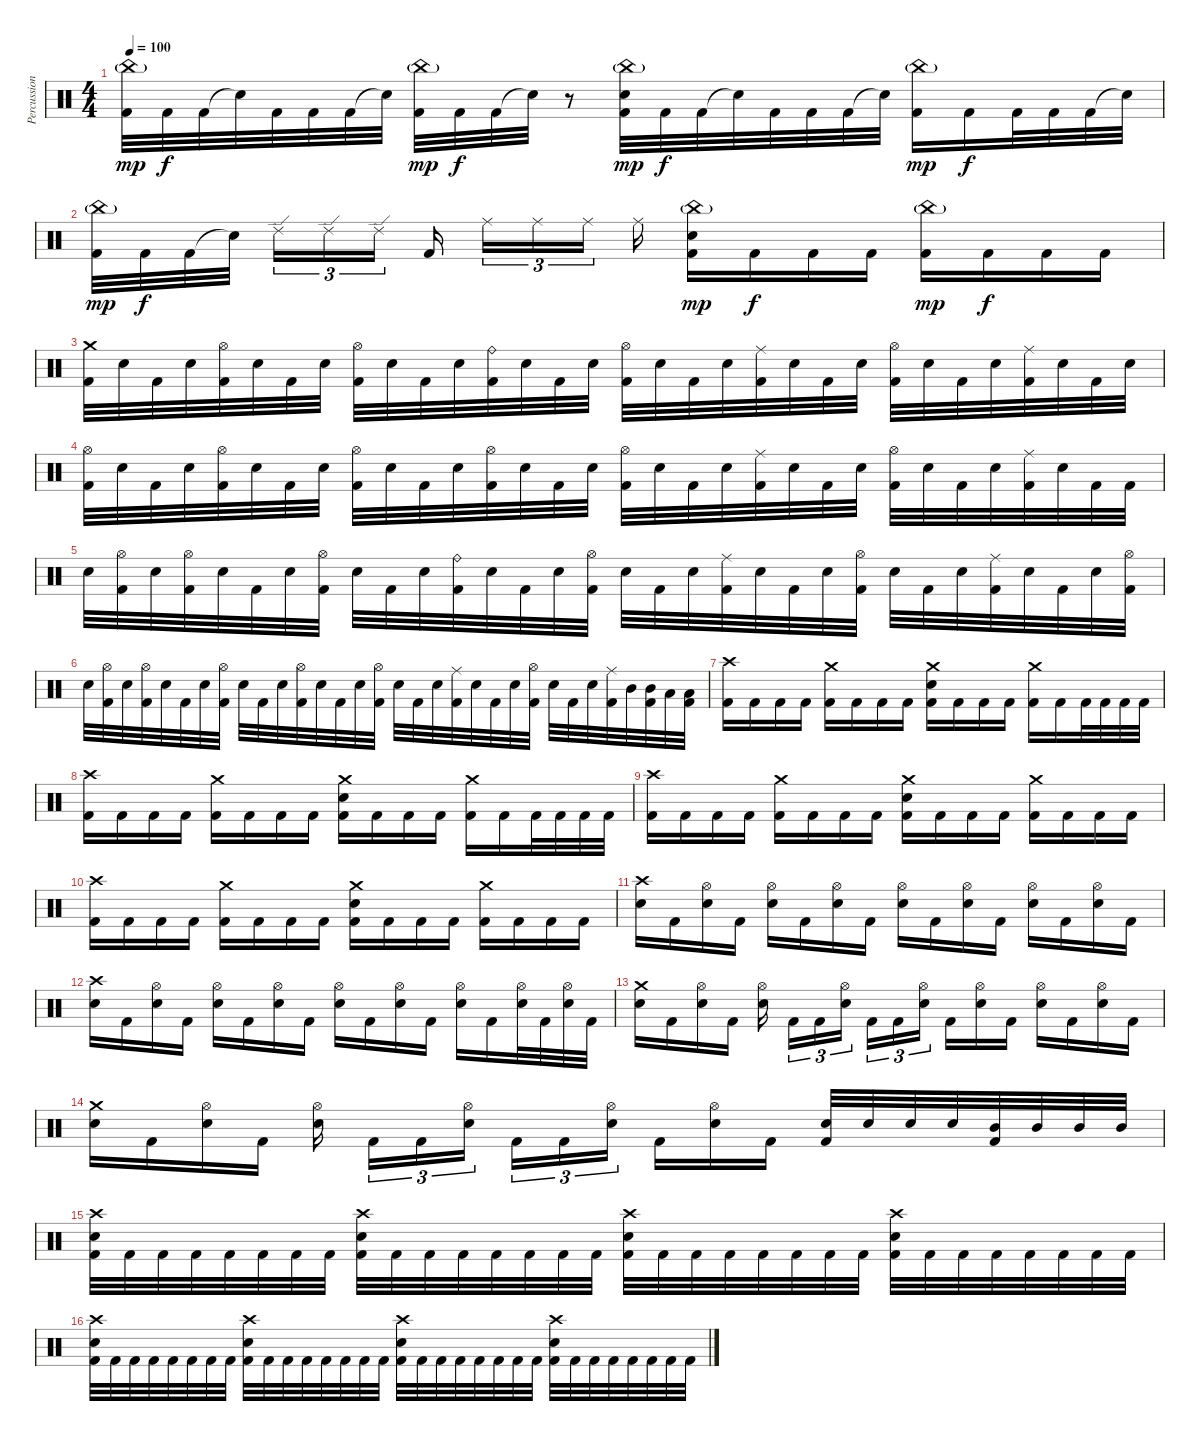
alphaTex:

\track ("Percussion" "Percussion") {instrument percussion}
\staff {score}
\articulation defaults
\ts (4 4)
\tempo 100
\clef neutral
\ks c
("China (hit)"{g} "Kick (hit) 2").32{dy mp} "Kick (hit) 2".32{dy f} "Kick (hit) 2".32 "Snare (hit)"{t}.32 "Kick (hit) 2".32 "Kick (hit) 2".32 "Kick (hit) 2".32 "Snare (hit)"{t}.32 ("China (hit)"{g} "Kick (hit) 2").32{dy mp} "Kick (hit) 2".32{dy f} "Kick (hit) 2".32 "Snare (hit)"{t}.32 r.8 ("China (hit)"{g} "Electric Snare (hit)" "Kick (hit) 2").32{dy mp} "Kick (hit) 2".32{dy f} "Kick (hit) 2".32 "Snare (hit)"{t}.32 "Kick (hit) 2".32 "Kick (hit) 2".32 "Kick (hit) 2".32 "Snare (hit)"{t}.32 ("China (hit)"{g} "Kick (hit) 2").16{dy mp} "Kick (hit) 2".16{dy f} "Kick (hit) 2".32 "Kick (hit) 2".32 "Kick (hit) 2".32 "Snare (hit)"{t}.32 |
("China (hit)"{g} "Kick (hit) 2").32{dy mp} "Kick (hit) 2".32{dy f} "Kick (hit) 2".32 "Snare (hit)"{t}.32{beam splitsecondary} "Ride (edge) 2".16{tu (3 2)} "Ride (edge) 2".16{tu (3 2)} "Ride (edge) 2".16{tu (3 2)} "Kick (hit) 2".16{beam splitsecondary} "Ride (middle)".16{tu (3 2)} "Ride (middle)".16{tu (3 2)} "Ride (middle)".16{tu (3 2) beam splitsecondary} "Ride (middle)".16 ("China (hit)"{g} "Electric Snare (hit)" "Kick (hit) 2").16{dy mp} "Kick (hit) 2".16{dy f} "Kick (hit) 2".16 "Kick (hit) 2".16 ("China (hit)"{g} "Kick (hit) 2").16{dy mp} "Kick (hit) 2".16{dy f} "Kick (hit) 2".16 "Kick (hit) 2".16 |
("Crash medium (hit)" "Kick (hit) 2").32 "Electric Snare (hit)".32 "Kick (hit) 2".32 "Electric Snare (hit)".32 ("Hi-Hat (open)" "Kick (hit) 2").32 "Electric Snare (hit)".32 "Kick (hit) 2".32 "Electric Snare (hit)".32 ("Hi-Hat (open)" "Kick (hit) 2").32 "Electric Snare (hit)".32 "Kick (hit) 2".32 "Electric Snare (hit)".32 ("Ride (bell)" "Kick (hit) 2").32 "Electric Snare (hit)".32 "Kick (hit) 2".32 "Electric Snare (hit)".32 ("Hi-Hat (open)" "Kick (hit) 2").32 "Electric Snare (hit)".32 "Kick (hit) 2".32 "Electric Snare (hit)".32 ("Ride (middle)" "Kick (hit) 2").32 "Electric Snare (hit)".32 "Kick (hit) 2".32 "Electric Snare (hit)".32 ("Hi-Hat (open)" "Kick (hit) 2").32 "Electric Snare (hit)".32 "Kick (hit) 2".32 "Electric Snare (hit)".32 ("Ride (middle)" "Kick (hit) 2").32 "Electric Snare (hit)".32 "Kick (hit) 2".32 "Electric Snare (hit)".32 |
("Hi-Hat (open)" "Kick (hit) 2").32 "Electric Snare (hit)".32 "Kick (hit) 2".32 "Electric Snare (hit)".32 ("Hi-Hat (open)" "Kick (hit) 2").32 "Electric Snare (hit)".32 "Kick (hit) 2".32 "Electric Snare (hit)".32 ("Hi-Hat (open)" "Kick (hit) 2").32 "Electric Snare (hit)".32 "Kick (hit) 2".32 "Electric Snare (hit)".32 ("Hi-Hat (open)" "Kick (hit) 2").32 "Electric Snare (hit)".32 "Kick (hit) 2".32 "Electric Snare (hit)".32 ("Hi-Hat (open)" "Kick (hit) 2").32 "Electric Snare (hit)".32 "Kick (hit) 2".32 "Electric Snare (hit)".32 ("Ride (middle)" "Kick (hit) 2").32 "Electric Snare (hit)".32 "Kick (hit) 2".32 "Electric Snare (hit)".32 ("Hi-Hat (open)" "Kick (hit) 2").32 "Electric Snare (hit)".32 "Kick (hit) 2".32 "Electric Snare (hit)".32 ("Ride (middle)" "Kick (hit) 2").32 "Electric Snare (hit)".32 "Kick (hit) 2".32 "Kick (hit) 2".32 |
"Electric Snare (hit)".32 ("Hi-Hat (open)" "Kick (hit) 2").32 "Electric Snare (hit)".32 ("Hi-Hat (open)" "Kick (hit) 2").32 "Electric Snare (hit)".32 "Kick (hit) 2".32 "Electric Snare (hit)".32 ("Hi-Hat (open)" "Kick (hit) 2").32 "Electric Snare (hit)".32 "Kick (hit) 2".32 "Electric Snare (hit)".32 ("Ride (bell)" "Kick (hit) 2").32 "Electric Snare (hit)".32 "Kick (hit) 2".32 "Electric Snare (hit)".32 ("Hi-Hat (open)" "Kick (hit) 2").32 "Electric Snare (hit)".32 "Kick (hit) 2".32 "Electric Snare (hit)".32 ("Ride (middle)" "Kick (hit) 2").32 "Electric Snare (hit)".32 "Kick (hit) 2".32 "Electric Snare (hit)".32 ("Hi-Hat (open)" "Kick (hit) 2").32 "Electric Snare (hit)".32 "Kick (hit) 2".32 "Electric Snare (hit)".32 ("Ride (middle)" "Kick (hit) 2").32 "Electric Snare (hit)".32 "Kick (hit) 2".32 "Electric Snare (hit)".32 ("Hi-Hat (open)" "Kick (hit) 2").32 |
"Electric Snare (hit)".32 ("Hi-Hat (open)" "Kick (hit) 2").32 "Electric Snare (hit)".32 ("Hi-Hat (open)" "Kick (hit) 2").32 "Electric Snare (hit)".32 "Kick (hit) 2".32 "Electric Snare (hit)".32 ("Hi-Hat (open)" "Kick (hit) 2").32 "Electric Snare (hit)".32 "Kick (hit) 2".32 "Electric Snare (hit)".32 ("Hi-Hat (open)" "Kick (hit) 2").32 "Electric Snare (hit)".32 "Kick (hit) 2".32 "Electric Snare (hit)".32 ("Hi-Hat (open)" "Kick (hit) 2").32 "Electric Snare (hit)".32 "Kick (hit) 2".32 "Electric Snare (hit)".32 ("Ride (middle)" "Kick (hit) 2").32 "Electric Snare (hit)".32 "Kick (hit) 2".32 "Electric Snare (hit)".32 ("Hi-Hat (open)" "Kick (hit) 2").32 "Electric Snare (hit)".32 "Kick (hit) 2".32 "Electric Snare (hit)".32 ("Ride (middle)" "Kick (hit) 2").32 "Mid Tom (hit)".32 ("Mid Tom (hit)" "Kick (hit) 2").32 "Low Tom (hit)".32 ("Low Tom (hit)" "Kick (hit) 2").32 |
("Crash high (hit)" "Kick (hit) 2").16 "Kick (hit) 2".16 "Kick (hit) 2".16 "Kick (hit) 2".16 ("Crash medium (hit)" "Kick (hit) 2").16 "Kick (hit) 2".16 "Kick (hit) 2".16 "Kick (hit) 2".16 ("Crash medium (hit)" "Electric Snare (hit)" "Kick (hit) 2").16 "Kick (hit) 2".16 "Kick (hit) 2".16 "Kick (hit) 2".16 ("Crash medium (hit)" "Kick (hit) 2").16 "Kick (hit) 2".16 "Kick (hit) 2".32 "Kick (hit) 2".32 "Kick (hit) 2".32 "Kick (hit) 2".32 |
("Crash high (hit)" "Kick (hit) 2").16 "Kick (hit) 2".16 "Kick (hit) 2".16 "Kick (hit) 2".16 ("Crash medium (hit)" "Kick (hit) 2").16 "Kick (hit) 2".16 "Kick (hit) 2".16 "Kick (hit) 2".16 ("Crash medium (hit)" "Electric Snare (hit)" "Kick (hit) 2").16 "Kick (hit) 2".16 "Kick (hit) 2".16 "Kick (hit) 2".16 ("Crash medium (hit)" "Kick (hit) 2").16 "Kick (hit) 2".16 "Kick (hit) 2".32 "Kick (hit) 2".32 "Kick (hit) 2".32 "Kick (hit) 2".32 |
("Crash high (hit)" "Kick (hit) 2").16 "Kick (hit) 2".16 "Kick (hit) 2".16 "Kick (hit) 2".16 ("Crash medium (hit)" "Kick (hit) 2").16 "Kick (hit) 2".16 "Kick (hit) 2".16 "Kick (hit) 2".16 ("Crash medium (hit)" "Electric Snare (hit)" "Kick (hit) 2").16 "Kick (hit) 2".16 "Kick (hit) 2".16 "Kick (hit) 2".16 ("Crash medium (hit)" "Kick (hit) 2").16 "Kick (hit) 2".16 "Kick (hit) 2".16 "Kick (hit) 2".16 |
("Crash high (hit)" "Kick (hit) 2").16 "Kick (hit) 2".16 "Kick (hit) 2".16 "Kick (hit) 2".16 ("Crash medium (hit)" "Kick (hit) 2").16 "Kick (hit) 2".16 "Kick (hit) 2".16 "Kick (hit) 2".16 ("Crash medium (hit)" "Electric Snare (hit)" "Kick (hit) 2").16 "Kick (hit) 2".16 "Kick (hit) 2".16 "Kick (hit) 2".16 ("Crash medium (hit)" "Kick (hit) 2").16 "Kick (hit) 2".16 "Kick (hit) 2".16 "Kick (hit) 2".16 |
("Crash high (hit)" "Electric Snare (hit)").16 "Kick (hit) 2".16 ("Hi-Hat (open)" "Electric Snare (hit)").16 "Kick (hit) 2".16 ("Hi-Hat (open)" "Electric Snare (hit)").16 "Kick (hit) 2".16 ("Hi-Hat (open)" "Electric Snare (hit)").16 "Kick (hit) 2".16 ("Hi-Hat (open)" "Electric Snare (hit)").16 "Kick (hit) 2".16 ("Hi-Hat (open)" "Electric Snare (hit)").16 "Kick (hit) 2".16 ("Hi-Hat (open)" "Electric Snare (hit)").16 "Kick (hit) 2".16 ("Hi-Hat (open)" "Electric Snare (hit)").16 "Kick (hit) 2".16 |
("Crash high (hit)" "Electric Snare (hit)").16 "Kick (hit) 2".16 ("Hi-Hat (open)" "Electric Snare (hit)").16 "Kick (hit) 2".16 ("Hi-Hat (open)" "Electric Snare (hit)").16 "Kick (hit) 2".16 ("Hi-Hat (open)" "Electric Snare (hit)").16 "Kick (hit) 2".16 ("Hi-Hat (open)" "Electric Snare (hit)").16 "Kick (hit) 2".16 ("Hi-Hat (open)" "Electric Snare (hit)").16 "Kick (hit) 2".16 ("Hi-Hat (open)" "Electric Snare (hit)").16 "Kick (hit) 2".16 ("Hi-Hat (open)" "Electric Snare (hit)").32 "Kick (hit) 2".32 ("Hi-Hat (open)" "Electric Snare (hit)").32 "Kick (hit) 2".32 |
("Crash medium (hit)" "Electric Snare (hit)").16 "Kick (hit) 2".16 ("Hi-Hat (open)" "Electric Snare (hit)").16 "Kick (hit) 2".16 ("Hi-Hat (open)" "Electric Snare (hit)").16{beam splitsecondary} "Kick (hit) 2".16{tu (3 2)} "Kick (hit) 2".16{tu (3 2)} ("Hi-Hat (open)" "Electric Snare (hit)").16{tu (3 2) beam splitsecondary} "Kick (hit) 2".16{tu (3 2)} "Kick (hit) 2".16{tu (3 2)} ("Hi-Hat (open)" "Electric Snare (hit)").16{tu (3 2) beam splitsecondary} "Kick (hit) 2".16 ("Hi-Hat (open)" "Electric Snare (hit)").16 "Kick (hit) 2".16 ("Hi-Hat (open)" "Electric Snare (hit)").16 "Kick (hit) 2".16 ("Hi-Hat (open)" "Electric Snare (hit)").16 "Kick (hit) 2".16 |
("Crash medium (hit)" "Electric Snare (hit)").16 "Kick (hit) 2".16 ("Hi-Hat (open)" "Electric Snare (hit)").16 "Kick (hit) 2".16 ("Hi-Hat (open)" "Electric Snare (hit)").16{beam splitsecondary} "Kick (hit) 2".16{tu (3 2)} "Kick (hit) 2".16{tu (3 2)} ("Hi-Hat (open)" "Electric Snare (hit)").16{tu (3 2) beam splitsecondary} "Kick (hit) 2".16{tu (3 2)} "Kick (hit) 2".16{tu (3 2)} ("Hi-Hat (open)" "Electric Snare (hit)").16{tu (3 2) beam splitsecondary} "Kick (hit) 2".16 ("Hi-Hat (open)" "Electric Snare (hit)").16 "Kick (hit) 2".16 ("Electric Snare (hit)" "Kick (hit) 2").32 "Electric Snare (hit)".32 "Electric Snare (hit)".32 "Electric Snare (hit)".32 ("Mid Tom (hit)" "Kick (hit) 2").32 "Mid Tom (hit)".32 "Mid Tom (hit)".32 "Mid Tom (hit)".32 |
("Crash high (hit)" "Electric Snare (hit)" "Kick (hit) 2").32 "Kick (hit) 2".32 "Kick (hit) 2".32 "Kick (hit) 2".32 "Kick (hit) 2".32 "Kick (hit) 2".32 "Kick (hit) 2".32 "Kick (hit) 2".32 ("Crash high (hit)" "Electric Snare (hit)" "Kick (hit) 2").32 "Kick (hit) 2".32 "Kick (hit) 2".32 "Kick (hit) 2".32 "Kick (hit) 2".32 "Kick (hit) 2".32 "Kick (hit) 2".32 "Kick (hit) 2".32 ("Crash high (hit)" "Electric Snare (hit)" "Kick (hit) 2").32 "Kick (hit) 2".32 "Kick (hit) 2".32 "Kick (hit) 2".32 "Kick (hit) 2".32 "Kick (hit) 2".32 "Kick (hit) 2".32 "Kick (hit) 2".32 ("Crash high (hit)" "Electric Snare (hit)" "Kick (hit) 2").32 "Kick (hit) 2".32 "Kick (hit) 2".32 "Kick (hit) 2".32 "Kick (hit) 2".32 "Kick (hit) 2".32 "Kick (hit) 2".32 "Kick (hit) 2".32 |
("Crash high (hit)" "Electric Snare (hit)" "Kick (hit) 2").32 "Kick (hit) 2".32 "Kick (hit) 2".32 "Kick (hit) 2".32 "Kick (hit) 2".32 "Kick (hit) 2".32 "Kick (hit) 2".32 "Kick (hit) 2".32 ("Crash high (hit)" "Electric Snare (hit)" "Kick (hit) 2").32 "Kick (hit) 2".32 "Kick (hit) 2".32 "Kick (hit) 2".32 "Kick (hit) 2".32 "Kick (hit) 2".32 "Kick (hit) 2".32 "Kick (hit) 2".32 ("Crash high (hit)" "Electric Snare (hit)" "Kick (hit) 2").32 "Kick (hit) 2".32 "Kick (hit) 2".32 "Kick (hit) 2".32 "Kick (hit) 2".32 "Kick (hit) 2".32 "Kick (hit) 2".32 "Kick (hit) 2".32 ("Crash high (hit)" "Electric Snare (hit)" "Kick (hit) 2").32 "Kick (hit) 2".32 "Kick (hit) 2".32 "Kick (hit) 2".32 "Kick (hit) 2".32 "Kick (hit) 2".32 "Kick (hit) 2".32 "Kick (hit) 2".32
